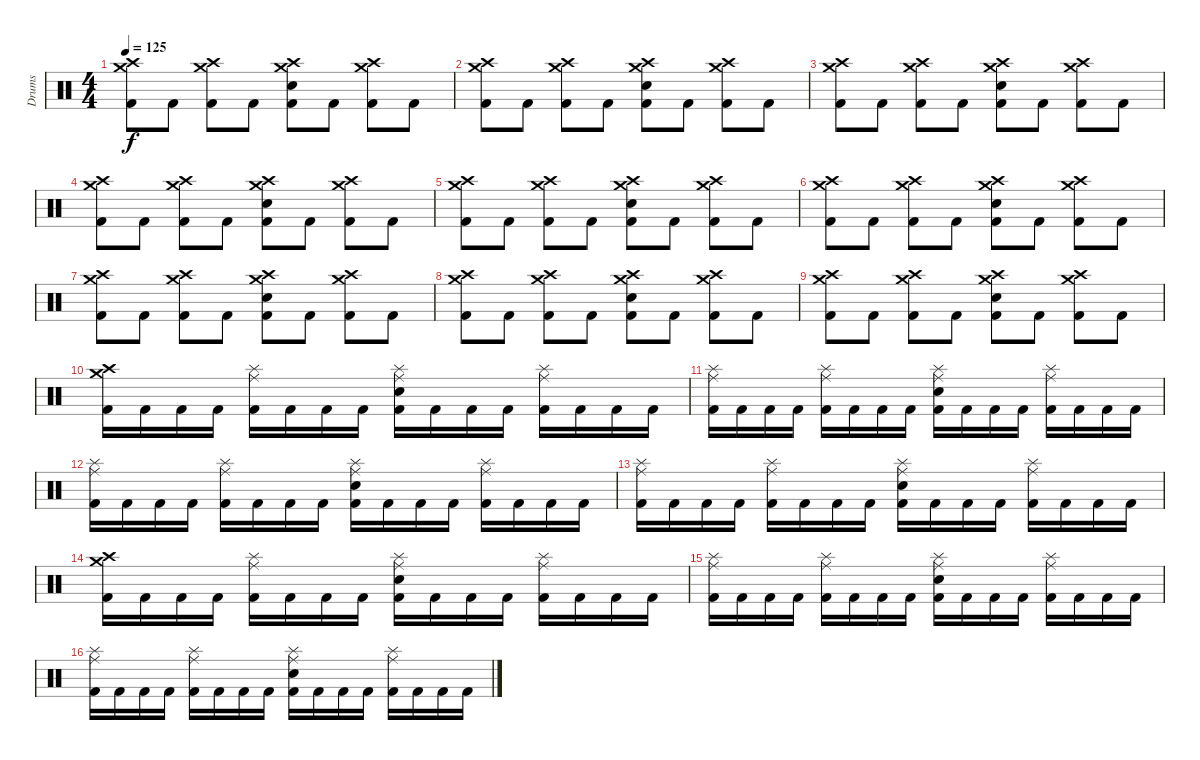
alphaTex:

\track ("Drums" "Drums") {instrument percussion}
\staff {score}
\articulation defaults
\ts (4 4)
\tempo 125
\clef neutral
\ks c
("Crash medium (hit)" "Crash high (hit)" "Kick (hit) 2").8{dy f} "Kick (hit) 2".8 ("Crash medium (hit)" "Crash high (hit)" "Kick (hit) 2").8 "Kick (hit) 2".8 ("Crash medium (hit)" "Snare (hit) 2" "Crash high (hit)" "Kick (hit) 2").8 "Kick (hit) 2".8 ("Crash medium (hit)" "Crash high (hit)" "Kick (hit) 2").8 "Kick (hit) 2".8 |
("Crash medium (hit)" "Crash high (hit)" "Kick (hit) 2").8 "Kick (hit) 2".8 ("Crash medium (hit)" "Crash high (hit)" "Kick (hit) 2").8 "Kick (hit) 2".8 ("Crash medium (hit)" "Snare (hit) 2" "Crash high (hit)" "Kick (hit) 2").8 "Kick (hit) 2".8 ("Crash medium (hit)" "Crash high (hit)" "Kick (hit) 2").8 "Kick (hit) 2".8 |
("Crash medium (hit)" "Crash high (hit)" "Kick (hit) 2").8 "Kick (hit) 2".8 ("Crash medium (hit)" "Crash high (hit)" "Kick (hit) 2").8 "Kick (hit) 2".8 ("Crash medium (hit)" "Snare (hit) 2" "Crash high (hit)" "Kick (hit) 2").8 "Kick (hit) 2".8 ("Crash medium (hit)" "Crash high (hit)" "Kick (hit) 2").8 "Kick (hit) 2".8 |
("Crash medium (hit)" "Crash high (hit)" "Kick (hit) 2").8 "Kick (hit) 2".8 ("Crash medium (hit)" "Crash high (hit)" "Kick (hit) 2").8 "Kick (hit) 2".8 ("Crash medium (hit)" "Snare (hit) 2" "Crash high (hit)" "Kick (hit) 2").8 "Kick (hit) 2".8 ("Crash medium (hit)" "Crash high (hit)" "Kick (hit) 2").8 "Kick (hit) 2".8 |
("Crash medium (hit)" "Crash high (hit)" "Kick (hit) 2").8 "Kick (hit) 2".8 ("Crash medium (hit)" "Crash high (hit)" "Kick (hit) 2").8 "Kick (hit) 2".8 ("Crash medium (hit)" "Snare (hit) 2" "Crash high (hit)" "Kick (hit) 2").8 "Kick (hit) 2".8 ("Crash medium (hit)" "Crash high (hit)" "Kick (hit) 2").8 "Kick (hit) 2".8 |
("Crash medium (hit)" "Crash high (hit)" "Kick (hit) 2").8 "Kick (hit) 2".8 ("Crash medium (hit)" "Crash high (hit)" "Kick (hit) 2").8 "Kick (hit) 2".8 ("Crash medium (hit)" "Snare (hit) 2" "Crash high (hit)" "Kick (hit) 2").8 "Kick (hit) 2".8 ("Crash medium (hit)" "Crash high (hit)" "Kick (hit) 2").8 "Kick (hit) 2".8 |
("Crash medium (hit)" "Crash high (hit)" "Kick (hit) 2").8 "Kick (hit) 2".8 ("Crash medium (hit)" "Crash high (hit)" "Kick (hit) 2").8 "Kick (hit) 2".8 ("Crash medium (hit)" "Snare (hit) 2" "Crash high (hit)" "Kick (hit) 2").8 "Kick (hit) 2".8 ("Crash medium (hit)" "Crash high (hit)" "Kick (hit) 2").8 "Kick (hit) 2".8 |
("Crash medium (hit)" "Crash high (hit)" "Kick (hit) 2").8 "Kick (hit) 2".8 ("Crash medium (hit)" "Crash high (hit)" "Kick (hit) 2").8 "Kick (hit) 2".8 ("Crash medium (hit)" "Snare (hit) 2" "Crash high (hit)" "Kick (hit) 2").8 "Kick (hit) 2".8 ("Crash medium (hit)" "Crash high (hit)" "Kick (hit) 2").8 "Kick (hit) 2".8 |
("Crash medium (hit)" "Crash high (hit)" "Kick (hit) 2").8 "Kick (hit) 2".8 ("Crash medium (hit)" "Crash high (hit)" "Kick (hit) 2").8 "Kick (hit) 2".8 ("Crash medium (hit)" "Snare (hit) 2" "Crash high (hit)" "Kick (hit) 2").8 "Kick (hit) 2".8 ("Crash medium (hit)" "Crash high (hit)" "Kick (hit) 2").8 "Kick (hit) 2".8 |
("Crash high (hit)" "Crash medium (hit)" "Kick (hit) 2").16 "Kick (hit) 2".16 "Kick (hit) 2".16 "Kick (hit) 2".16 ("Ride (middle)" "Splash (hit)" "Kick (hit) 2").16 "Kick (hit) 2".16 "Kick (hit) 2".16 "Kick (hit) 2".16 ("Ride (middle)" "Snare (hit) 2" "Splash (hit)" "Kick (hit) 2").16 "Kick (hit) 2".16 "Kick (hit) 2".16 "Kick (hit) 2".16 ("Ride (middle)" "Splash (hit)" "Kick (hit) 2").16 "Kick (hit) 2".16 "Kick (hit) 2".16 "Kick (hit) 2".16 |
("Ride (middle)" "Splash (hit)" "Kick (hit) 2").16 "Kick (hit) 2".16 "Kick (hit) 2".16 "Kick (hit) 2".16 ("Ride (middle)" "Splash (hit)" "Kick (hit) 2").16 "Kick (hit) 2".16 "Kick (hit) 2".16 "Kick (hit) 2".16 ("Ride (middle)" "Snare (hit) 2" "Splash (hit)" "Kick (hit) 2").16 "Kick (hit) 2".16 "Kick (hit) 2".16 "Kick (hit) 2".16 ("Ride (middle)" "Splash (hit)" "Kick (hit) 2").16 "Kick (hit) 2".16 "Kick (hit) 2".16 "Kick (hit) 2".16 |
("Ride (middle)" "Splash (hit)" "Kick (hit) 2").16 "Kick (hit) 2".16 "Kick (hit) 2".16 "Kick (hit) 2".16 ("Ride (middle)" "Splash (hit)" "Kick (hit) 2").16 "Kick (hit) 2".16 "Kick (hit) 2".16 "Kick (hit) 2".16 ("Ride (middle)" "Snare (hit) 2" "Splash (hit)" "Kick (hit) 2").16 "Kick (hit) 2".16 "Kick (hit) 2".16 "Kick (hit) 2".16 ("Ride (middle)" "Splash (hit)" "Kick (hit) 2").16 "Kick (hit) 2".16 "Kick (hit) 2".16 "Kick (hit) 2".16 |
("Ride (middle)" "Splash (hit)" "Kick (hit) 2").16 "Kick (hit) 2".16 "Kick (hit) 2".16 "Kick (hit) 2".16 ("Ride (middle)" "Splash (hit)" "Kick (hit) 2").16 "Kick (hit) 2".16 "Kick (hit) 2".16 "Kick (hit) 2".16 ("Ride (middle)" "Snare (hit) 2" "Splash (hit)" "Kick (hit) 2").16 "Kick (hit) 2".16 "Kick (hit) 2".16 "Kick (hit) 2".16 ("Ride (middle)" "Splash (hit)" "Kick (hit) 2").16 "Kick (hit) 2".16 "Kick (hit) 2".16 "Kick (hit) 2".16 |
("Crash high (hit)" "Crash medium (hit)" "Kick (hit) 2").16 "Kick (hit) 2".16 "Kick (hit) 2".16 "Kick (hit) 2".16 ("Ride (middle)" "Splash (hit)" "Kick (hit) 2").16 "Kick (hit) 2".16 "Kick (hit) 2".16 "Kick (hit) 2".16 ("Ride (middle)" "Snare (hit) 2" "Splash (hit)" "Kick (hit) 2").16 "Kick (hit) 2".16 "Kick (hit) 2".16 "Kick (hit) 2".16 ("Ride (middle)" "Splash (hit)" "Kick (hit) 2").16 "Kick (hit) 2".16 "Kick (hit) 2".16 "Kick (hit) 2".16 |
("Ride (middle)" "Splash (hit)" "Kick (hit) 2").16 "Kick (hit) 2".16 "Kick (hit) 2".16 "Kick (hit) 2".16 ("Ride (middle)" "Splash (hit)" "Kick (hit) 2").16 "Kick (hit) 2".16 "Kick (hit) 2".16 "Kick (hit) 2".16 ("Ride (middle)" "Snare (hit) 2" "Splash (hit)" "Kick (hit) 2").16 "Kick (hit) 2".16 "Kick (hit) 2".16 "Kick (hit) 2".16 ("Ride (middle)" "Splash (hit)" "Kick (hit) 2").16 "Kick (hit) 2".16 "Kick (hit) 2".16 "Kick (hit) 2".16 |
("Ride (middle)" "Splash (hit)" "Kick (hit) 2").16 "Kick (hit) 2".16 "Kick (hit) 2".16 "Kick (hit) 2".16 ("Ride (middle)" "Splash (hit)" "Kick (hit) 2").16 "Kick (hit) 2".16 "Kick (hit) 2".16 "Kick (hit) 2".16 ("Ride (middle)" "Snare (hit) 2" "Splash (hit)" "Kick (hit) 2").16 "Kick (hit) 2".16 "Kick (hit) 2".16 "Kick (hit) 2".16 ("Ride (middle)" "Splash (hit)" "Kick (hit) 2").16 "Kick (hit) 2".16 "Kick (hit) 2".16 "Kick (hit) 2".16
